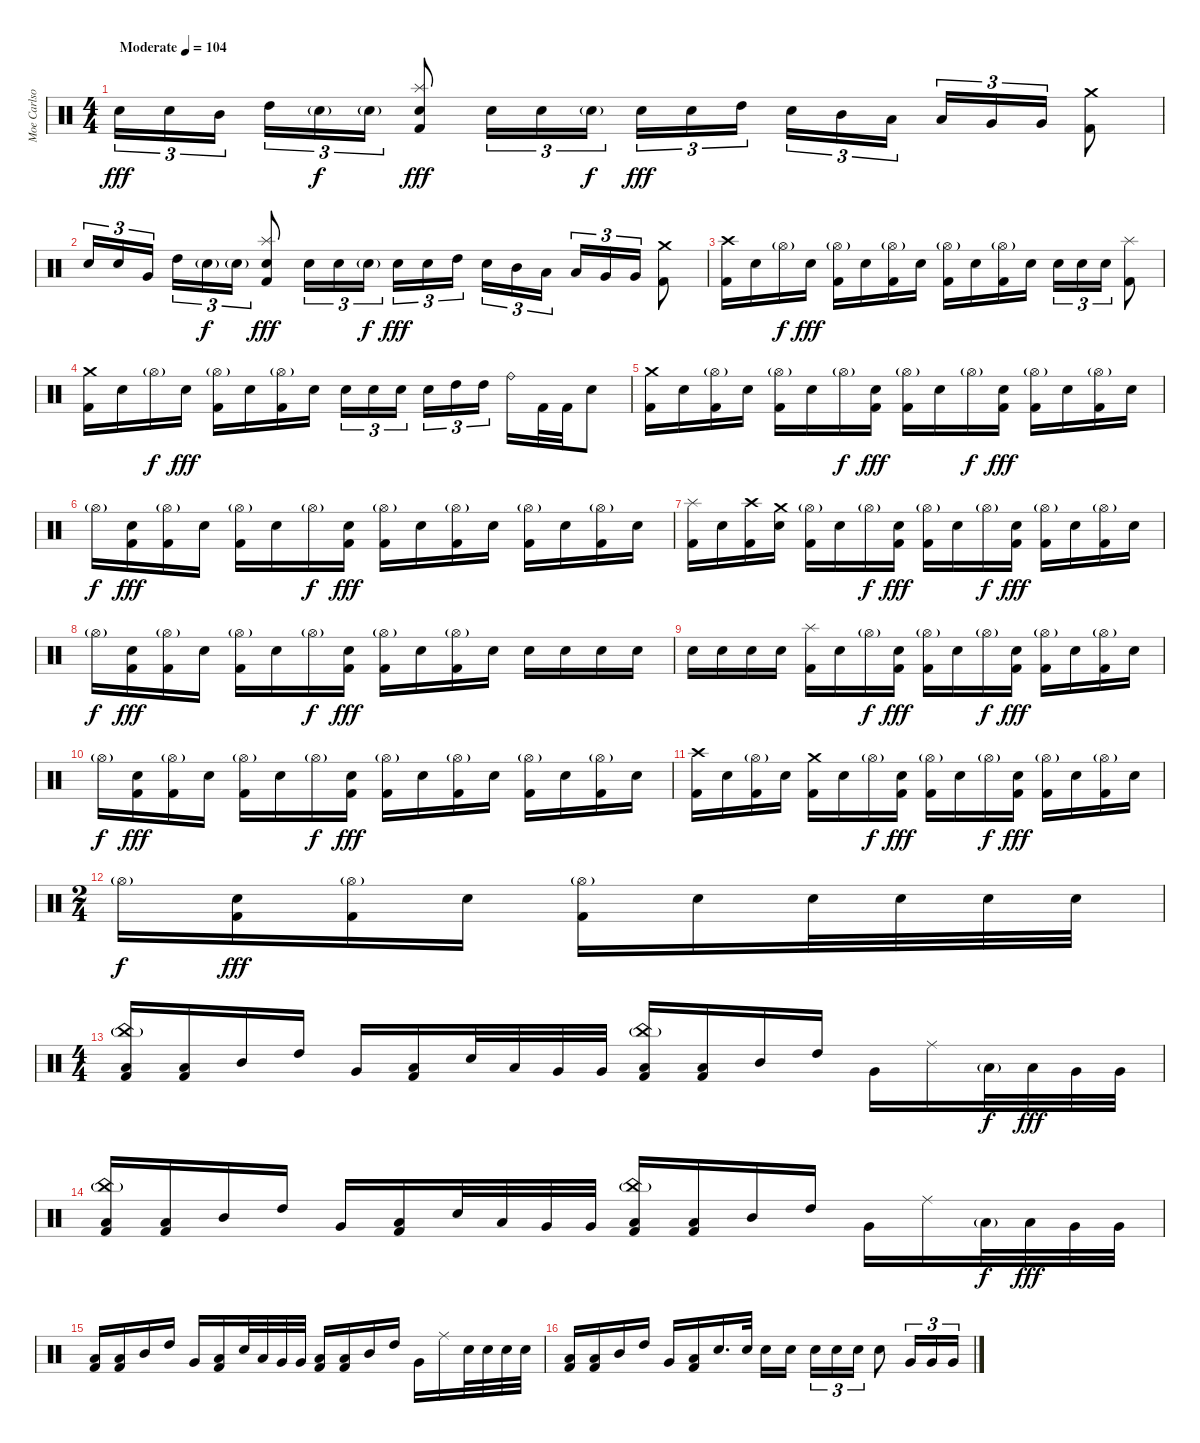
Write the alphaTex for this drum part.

\track ("Moe Carlson" "Moe Carlso") {instrument percussion}
\staff {score}
\articulation defaults
\ts (4 4)
\tempo (104 "Moderate")
\clef neutral
\ks c "Electric Snare (hit)".16{tu (3 2) dy fff} "Electric Snare (hit)".16{tu (3 2)} "Mid Tom (hit)".16{tu (3 2) beam splitsecondary} "High Tom (hit)".16{tu (3 2)} "Electric Snare (hit)"{g}.16{tu (3 2) dy f} "Electric Snare (hit)"{g}.16{tu (3 2)}
("Splash (hit)" "Electric Snare (hit)" "Kick (hit) 2").8{dy fff} "Electric Snare (hit)".16{tu (3 2)} "Electric Snare (hit)".16{tu (3 2)} "Electric Snare (hit)"{g}.16{tu (3 2) dy f} "Electric Snare (hit)".16{tu (3 2) dy fff} "Electric Snare (hit)".16{tu (3 2)} "High Tom (hit)".16{tu (3 2) beam splitsecondary} "Electric Snare (hit)".16{tu (3 2)} "Mid Tom (hit)".16{tu (3 2)} "Low Tom (hit)".16{tu (3 2)} "Low Tom (hit)".16{tu (3 2)} "Very Low Tom (hit)".16{tu (3 2)} "Very Low Tom (hit)".16{tu (3 2)} ("Crash medium (hit)" "Kick (hit) 2").8 |
"Electric Snare (hit)".16{tu (3 2)} "Electric Snare (hit)".16{tu (3 2)} "Very Low Tom (hit)".16{tu (3 2) beam splitsecondary} "High Tom (hit)".16{tu (3 2)} "Electric Snare (hit)"{g}.16{tu (3 2) dy f} "Electric Snare (hit)"{g}.16{tu (3 2)} ("Splash (hit)" "Electric Snare (hit)" "Kick (hit) 2").8{dy fff} "Electric Snare (hit)".16{tu (3 2)} "Electric Snare (hit)".16{tu (3 2)} "Electric Snare (hit)"{g}.16{tu (3 2) dy f} "Electric Snare (hit)".16{tu (3 2) dy fff} "Electric Snare (hit)".16{tu (3 2)} "High Tom (hit)".16{tu (3 2) beam splitsecondary} "Electric Snare (hit)".16{tu (3 2)} "Mid Tom (hit)".16{tu (3 2)} "Low Tom (hit)".16{tu (3 2)} "Low Tom (hit)".16{tu (3 2)} "Very Low Tom (hit)".16{tu (3 2)} "Very Low Tom (hit)".16{tu (3 2)} ("Crash medium (hit)" "Kick (hit) 2").8 |
("Crash high (hit)" "Kick (hit) 2").16 "Electric Snare (hit)".16 "Hi-Hat (open)"{g}.16{dy f} "Electric Snare (hit)".16{dy fff} ("Hi-Hat (open)"{g} "Kick (hit) 2").16 "Electric Snare (hit)".16 ("Hi-Hat (open)"{g} "Kick (hit) 2").16 "Electric Snare (hit)".16 ("Hi-Hat (open)"{g} "Kick (hit) 2").16 "Electric Snare (hit)".16 ("Hi-Hat (open)"{g} "Kick (hit) 2").16 "Electric Snare (hit)".16 "Electric Snare (hit)".16{tu (3 2)} "Electric Snare (hit)".16{tu (3 2)} "Electric Snare (hit)".16{tu (3 2)} ("Splash (hit)" "Kick (hit) 2").8 |
("Crash medium (hit)" "Kick (hit) 2").16 "Electric Snare (hit)".16 "Hi-Hat (open)"{g}.16{dy f} "Electric Snare (hit)".16{dy fff} ("Hi-Hat (open)"{g} "Kick (hit) 2").16 "Electric Snare (hit)".16 ("Hi-Hat (open)"{g} "Kick (hit) 2").16 "Electric Snare (hit)".16 "Electric Snare (hit)".16{tu (3 2)} "Electric Snare (hit)".16{tu (3 2)} "Electric Snare (hit)".16{tu (3 2) beam splitsecondary} "Electric Snare (hit)".16{tu (3 2)} "High Tom (hit)".16{tu (3 2)} "High Tom (hit)".16{tu (3 2)} "Ride (bell)".16 "Kick (hit) 2".32 "Kick (hit) 2".32 "Electric Snare (hit)".8 |
("Crash medium (hit)" "Kick (hit) 2").16 "Electric Snare (hit)".16 ("Hi-Hat (open)"{g} "Kick (hit) 2").16 "Electric Snare (hit)".16 ("Hi-Hat (open)"{g} "Kick (hit) 2").16 "Electric Snare (hit)".16 "Hi-Hat (open)"{g}.16{dy f} ("Electric Snare (hit)" "Kick (hit) 2").16{dy fff} ("Hi-Hat (open)"{g} "Kick (hit) 2").16 "Electric Snare (hit)".16 "Hi-Hat (open)"{g}.16{dy f} ("Electric Snare (hit)" "Kick (hit) 2").16{dy fff} ("Hi-Hat (open)"{g} "Kick (hit) 2").16 "Electric Snare (hit)".16 ("Hi-Hat (open)"{g} "Kick (hit) 2").16 "Electric Snare (hit)".16 |
"Hi-Hat (open)"{g}.16{dy f} ("Electric Snare (hit)" "Kick (hit) 2").16{dy fff} ("Hi-Hat (open)"{g} "Kick (hit) 2").16 "Electric Snare (hit)".16 ("Hi-Hat (open)"{g} "Kick (hit) 2").16 "Electric Snare (hit)".16 "Hi-Hat (open)"{g}.16{dy f} ("Electric Snare (hit)" "Kick (hit) 2").16{dy fff} ("Hi-Hat (open)"{g} "Kick (hit) 2").16 "Electric Snare (hit)".16 ("Hi-Hat (open)"{g} "Kick (hit) 2").16 "Electric Snare (hit)".16 ("Hi-Hat (open)"{g} "Kick (hit) 2").16 "Electric Snare (hit)".16 ("Hi-Hat (open)"{g} "Kick (hit) 2").16 "Electric Snare (hit)".16 |
("Splash (hit)" "Kick (hit) 2").16 "Electric Snare (hit)".16 ("Crash high (hit)" "Kick (hit) 2").16 ("Crash medium (hit)" "Electric Snare (hit)").16 ("Hi-Hat (open)"{g} "Kick (hit) 2").16 "Electric Snare (hit)".16 "Hi-Hat (open)"{g}.16{dy f} ("Electric Snare (hit)" "Kick (hit) 2").16{dy fff} ("Hi-Hat (open)"{g} "Kick (hit) 2").16 "Electric Snare (hit)".16 "Hi-Hat (open)"{g}.16{dy f} ("Electric Snare (hit)" "Kick (hit) 2").16{dy fff} ("Hi-Hat (open)"{g} "Kick (hit) 2").16 "Electric Snare (hit)".16 ("Hi-Hat (open)"{g} "Kick (hit) 2").16 "Electric Snare (hit)".16 |
"Hi-Hat (open)"{g}.16{dy f} ("Electric Snare (hit)" "Kick (hit) 2").16{dy fff} ("Hi-Hat (open)"{g} "Kick (hit) 2").16 "Electric Snare (hit)".16 ("Hi-Hat (open)"{g} "Kick (hit) 2").16 "Electric Snare (hit)".16 "Hi-Hat (open)"{g}.16{dy f} ("Electric Snare (hit)" "Kick (hit) 2").16{dy fff} ("Hi-Hat (open)"{g} "Kick (hit) 2").16 "Electric Snare (hit)".16 ("Hi-Hat (open)"{g} "Kick (hit) 2").16 "Electric Snare (hit)".16 "Electric Snare (hit)".16 "Electric Snare (hit)".16 "Electric Snare (hit)".16 "Electric Snare (hit)".16 |
"Electric Snare (hit)".16 "Electric Snare (hit)".16 "Electric Snare (hit)".16 "Electric Snare (hit)".16 ("Splash (hit)" "Kick (hit) 2").16 "Electric Snare (hit)".16 "Hi-Hat (open)"{g}.16{dy f} ("Electric Snare (hit)" "Kick (hit) 2").16{dy fff} ("Hi-Hat (open)"{g} "Kick (hit) 2").16 "Electric Snare (hit)".16 "Hi-Hat (open)"{g}.16{dy f} ("Electric Snare (hit)" "Kick (hit) 2").16{dy fff} ("Hi-Hat (open)"{g} "Kick (hit) 2").16 "Electric Snare (hit)".16 ("Hi-Hat (open)"{g} "Kick (hit) 2").16 "Electric Snare (hit)".16 |
"Hi-Hat (open)"{g}.16{dy f} ("Electric Snare (hit)" "Kick (hit) 2").16{dy fff} ("Hi-Hat (open)"{g} "Kick (hit) 2").16 "Electric Snare (hit)".16 ("Hi-Hat (open)"{g} "Kick (hit) 2").16 "Electric Snare (hit)".16 "Hi-Hat (open)"{g}.16{dy f} ("Electric Snare (hit)" "Kick (hit) 2").16{dy fff} ("Hi-Hat (open)"{g} "Kick (hit) 2").16 "Electric Snare (hit)".16 ("Hi-Hat (open)"{g} "Kick (hit) 2").16 "Electric Snare (hit)".16 ("Hi-Hat (open)"{g} "Kick (hit) 2").16 "Electric Snare (hit)".16 ("Hi-Hat (open)"{g} "Kick (hit) 2").16 "Electric Snare (hit)".16 |
("Crash high (hit)" "Kick (hit) 2").16 "Electric Snare (hit)".16 ("Hi-Hat (open)"{g} "Kick (hit) 2").16 "Electric Snare (hit)".16 ("Crash medium (hit)" "Kick (hit) 2").16 "Electric Snare (hit)".16 "Hi-Hat (open)"{g}.16{dy f} ("Electric Snare (hit)" "Kick (hit) 2").16{dy fff} ("Hi-Hat (open)"{g} "Kick (hit) 2").16 "Electric Snare (hit)".16 "Hi-Hat (open)"{g}.16{dy f} ("Electric Snare (hit)" "Kick (hit) 2").16{dy fff} ("Hi-Hat (open)"{g} "Kick (hit) 2").16 "Electric Snare (hit)".16 ("Hi-Hat (open)"{g} "Kick (hit) 2").16 "Electric Snare (hit)".16 |
\ts (2 4)
"Hi-Hat (open)"{g}.16{dy f} ("Electric Snare (hit)" "Kick (hit) 2").16{dy fff} ("Hi-Hat (open)"{g} "Kick (hit) 2").16 "Electric Snare (hit)".16 ("Hi-Hat (open)"{g} "Kick (hit) 2").16 "Electric Snare (hit)".16 "Electric Snare (hit)".32 "Electric Snare (hit)".32 "Electric Snare (hit)".32 "Electric Snare (hit)".32 |
\ts (4 4)
("China (hit)"{g} "Low Floor Tom (hit)" "Kick (hit) 2").16 ("Low Floor Tom (hit)" "Kick (hit) 2").16 "Mid Tom (hit)".16 "High Tom (hit)".16 "Very Low Tom (hit)".16 ("Low Floor Tom (hit)" "Kick (hit) 2").16 "Electric Snare (hit)".32 "Low Tom (hit)".32 "Very Low Tom (hit)".32 "Very Low Tom (hit)".32 ("China (hit)"{g} "Low Floor Tom (hit)" "Kick (hit) 2").16 ("Low Floor Tom (hit)" "Kick (hit) 2").16 "Mid Tom (hit)".16 "High Tom (hit)".16 "Very Low Tom (hit)".16 "Ride (middle)".16 "Low Tom (hit)"{g}.32{dy f} "Low Tom (hit)".32{dy fff} "Very Low Tom (hit)".32 "Very Low Tom (hit)".32 |
("China (hit)"{g} "Low Floor Tom (hit)" "Kick (hit) 2").16 ("Low Floor Tom (hit)" "Kick (hit) 2").16 "Mid Tom (hit)".16 "High Tom (hit)".16 "Very Low Tom (hit)".16 ("Low Floor Tom (hit)" "Kick (hit) 2").16 "Electric Snare (hit)".32 "Low Tom (hit)".32 "Very Low Tom (hit)".32 "Very Low Tom (hit)".32 ("China (hit)"{g} "Low Floor Tom (hit)" "Kick (hit) 2").16 ("Low Floor Tom (hit)" "Kick (hit) 2").16 "Mid Tom (hit)".16 "High Tom (hit)".16 "Very Low Tom (hit)".16 "Ride (middle)".16 "Low Tom (hit)"{g}.32{dy f} "Low Tom (hit)".32{dy fff} "Very Low Tom (hit)".32 "Very Low Tom (hit)".32 |
("Low Floor Tom (hit)" "Kick (hit) 2").16 ("Low Floor Tom (hit)" "Kick (hit) 2").16 "Mid Tom (hit)".16 "High Tom (hit)".16 "Very Low Tom (hit)".16 ("Low Floor Tom (hit)" "Kick (hit) 2").16 "Electric Snare (hit)".32 "Low Tom (hit)".32 "Very Low Tom (hit)".32 "Very Low Tom (hit)".32 ("Low Floor Tom (hit)" "Kick (hit) 2").16 ("Low Floor Tom (hit)" "Kick (hit) 2").16 "Mid Tom (hit)".16 "High Tom (hit)".16 "Very Low Tom (hit)".16 "Ride (middle)".16 "Electric Snare (hit)".32 "Electric Snare (hit)".32 "Electric Snare (hit)".32 "Electric Snare (hit)".32 |
("Low Floor Tom (hit)" "Kick (hit) 2").16 ("Low Floor Tom (hit)" "Kick (hit) 2").16 "Mid Tom (hit)".16 "High Tom (hit)".16 "Very Low Tom (hit)".16 ("Low Floor Tom (hit)" "Kick (hit) 2").16 "Electric Snare (hit)".16{d} "Electric Snare (hit)".32 "Electric Snare (hit)".16 "Electric Snare (hit)".16{beam splitsecondary} "Electric Snare (hit)".16{tu (3 2)} "Electric Snare (hit)".16{tu (3 2)} "Electric Snare (hit)".16{tu (3 2)} "Electric Snare (hit)".8 "Very Low Tom (hit)".16{tu (3 2)} "Very Low Tom (hit)".16{tu (3 2)} "Very Low Tom (hit)".16{tu (3 2)}
